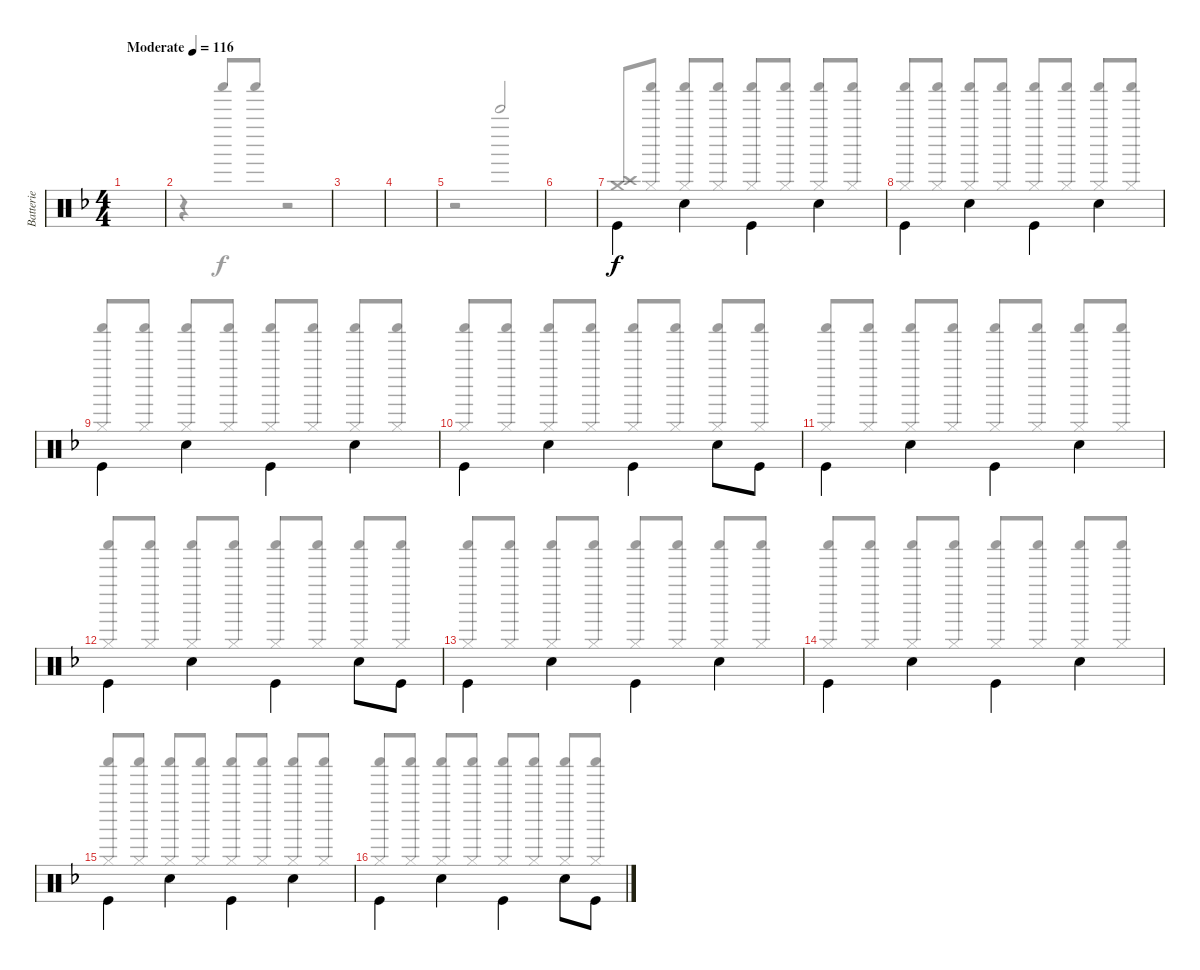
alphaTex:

\track ("Batterie" "Batterie") {instrument percussion}
\staff {score}
\articulation defaults
\voice
\ts (4 4)
\tempo (116 "Moderate")
\clef neutral
\ks f
|
|
|
|
|
|
"Kick (hit)".4{beam Down} "Snare (hit) 2".4{beam Down} "Kick (hit)".4{beam Down} "Snare (hit) 2".4{beam Down} |
"Kick (hit)".4{beam Down} "Snare (hit) 2".4{beam Down} "Kick (hit)".4{beam Down} "Snare (hit) 2".4{beam Down} |
"Kick (hit)".4{beam Down} "Snare (hit) 2".4{beam Down} "Kick (hit)".4{beam Down} "Snare (hit) 2".4{beam Down} |
"Kick (hit)".4{beam Down} "Snare (hit) 2".4{beam Down} "Kick (hit)".4{beam Down} "Snare (hit) 2".8{beam Down} "Kick (hit)".8{beam Down} |
"Kick (hit)".4{beam Down} "Snare (hit) 2".4{beam Down} "Kick (hit)".4{beam Down} "Snare (hit) 2".4{beam Down} |
"Kick (hit)".4{beam Down} "Snare (hit) 2".4{beam Down} "Kick (hit)".4{beam Down} "Snare (hit) 2".8{beam Down} "Kick (hit)".8{beam Down} |
"Kick (hit)".4{beam Down} "Snare (hit) 2".4{beam Down} "Kick (hit)".4{beam Down} "Snare (hit) 2".4{beam Down} |
"Kick (hit)".4{beam Down} "Snare (hit) 2".4{beam Down} "Kick (hit)".4{beam Down} "Snare (hit) 2".4{beam Down} |
"Kick (hit)".4{beam Down} "Snare (hit) 2".4{beam Down} "Kick (hit)".4{beam Down} "Snare (hit) 2".4{beam Down} |
"Kick (hit)".4{beam Down} "Snare (hit) 2".4{beam Down} "Kick (hit)".4{beam Down} "Snare (hit) 2".8{beam Down} "Kick (hit)".8{beam Down}
\voice
\clef neutral
\ottava regular
\simile none
\ks f
|
r.4 "Shaker (hit)".8{beam Up} "Shaker (hit)".8{beam Up} r.2 |
|
|
r.2 "Bell Tree (hit)".2{beam Up} |
|
("Crash medium (hit)" "Crash high (hit)").8{beam Up} ("Shaker (hit)" "Hi-Hat (closed)").8{beam Up} ("Shaker (hit)" "Hi-Hat (closed)").8{beam Up} ("Shaker (hit)" "Hi-Hat (closed)").8{beam Up} ("Shaker (hit)" "Hi-Hat (closed)").8{beam Up} ("Shaker (hit)" "Hi-Hat (closed)").8{beam Up} ("Shaker (hit)" "Hi-Hat (closed)").8{beam Up} ("Shaker (hit)" "Hi-Hat (closed)").8{beam Up} |
("Shaker (hit)" "Hi-Hat (closed)").8{beam Up} ("Shaker (hit)" "Hi-Hat (closed)").8{beam Up} ("Shaker (hit)" "Hi-Hat (closed)").8{beam Up} ("Shaker (hit)" "Hi-Hat (closed)").8{beam Up} ("Shaker (hit)" "Hi-Hat (closed)").8{beam Up} ("Shaker (hit)" "Hi-Hat (closed)").8{beam Up} ("Shaker (hit)" "Hi-Hat (closed)").8{beam Up} ("Shaker (hit)" "Hi-Hat (closed)").8{beam Up} |
("Shaker (hit)" "Hi-Hat (closed)").8{beam Up} ("Shaker (hit)" "Hi-Hat (closed)").8{beam Up} ("Shaker (hit)" "Hi-Hat (closed)").8{beam Up} ("Shaker (hit)" "Hi-Hat (closed)").8{beam Up} ("Shaker (hit)" "Hi-Hat (closed)").8{beam Up} ("Shaker (hit)" "Hi-Hat (closed)").8{beam Up} ("Shaker (hit)" "Hi-Hat (closed)").8{beam Up} ("Shaker (hit)" "Hi-Hat (closed)").8{beam Up} |
("Shaker (hit)" "Hi-Hat (closed)").8{beam Up} ("Shaker (hit)" "Hi-Hat (closed)").8{beam Up} ("Shaker (hit)" "Hi-Hat (closed)").8{beam Up} ("Shaker (hit)" "Hi-Hat (closed)").8{beam Up} ("Shaker (hit)" "Hi-Hat (closed)").8{beam Up} ("Shaker (hit)" "Hi-Hat (closed)").8{beam Up} ("Shaker (hit)" "Hi-Hat (closed)").8{beam Up} ("Shaker (hit)" "Hi-Hat (closed)").8{beam Up} |
("Shaker (hit)" "Hi-Hat (closed)").8{beam Up} ("Shaker (hit)" "Hi-Hat (closed)").8{beam Up} ("Shaker (hit)" "Hi-Hat (closed)").8{beam Up} ("Shaker (hit)" "Hi-Hat (closed)").8{beam Up} ("Shaker (hit)" "Hi-Hat (closed)").8{beam Up} ("Shaker (hit)" "Hi-Hat (closed)").8{beam Up} ("Shaker (hit)" "Hi-Hat (closed)").8{beam Up} ("Shaker (hit)" "Hi-Hat (closed)").8{beam Up} |
("Shaker (hit)" "Hi-Hat (closed)").8{beam Up} ("Shaker (hit)" "Hi-Hat (closed)").8{beam Up} ("Shaker (hit)" "Hi-Hat (closed)").8{beam Up} ("Shaker (hit)" "Hi-Hat (closed)").8{beam Up} ("Shaker (hit)" "Hi-Hat (closed)").8{beam Up} ("Shaker (hit)" "Hi-Hat (closed)").8{beam Up} ("Shaker (hit)" "Hi-Hat (closed)").8{beam Up} ("Shaker (hit)" "Hi-Hat (closed)").8{beam Up} |
("Shaker (hit)" "Hi-Hat (closed)").8{beam Up} ("Shaker (hit)" "Hi-Hat (closed)").8{beam Up} ("Shaker (hit)" "Hi-Hat (closed)").8{beam Up} ("Shaker (hit)" "Hi-Hat (closed)").8{beam Up} ("Shaker (hit)" "Hi-Hat (closed)").8{beam Up} ("Shaker (hit)" "Hi-Hat (closed)").8{beam Up} ("Shaker (hit)" "Hi-Hat (closed)").8{beam Up} ("Shaker (hit)" "Hi-Hat (closed)").8{beam Up} |
("Shaker (hit)" "Hi-Hat (closed)").8{beam Up} ("Shaker (hit)" "Hi-Hat (closed)").8{beam Up} ("Shaker (hit)" "Hi-Hat (closed)").8{beam Up} ("Shaker (hit)" "Hi-Hat (closed)").8{beam Up} ("Shaker (hit)" "Hi-Hat (closed)").8{beam Up} ("Shaker (hit)" "Hi-Hat (closed)").8{beam Up} ("Shaker (hit)" "Hi-Hat (closed)").8{beam Up} ("Shaker (hit)" "Hi-Hat (closed)").8{beam Up} |
("Shaker (hit)" "Hi-Hat (closed)").8{beam Up} ("Shaker (hit)" "Hi-Hat (closed)").8{beam Up} ("Shaker (hit)" "Hi-Hat (closed)").8{beam Up} ("Shaker (hit)" "Hi-Hat (closed)").8{beam Up} ("Shaker (hit)" "Hi-Hat (closed)").8{beam Up} ("Shaker (hit)" "Hi-Hat (closed)").8{beam Up} ("Shaker (hit)" "Hi-Hat (closed)").8{beam Up} ("Shaker (hit)" "Hi-Hat (closed)").8{beam Up} |
("Shaker (hit)" "Hi-Hat (closed)").8{beam Up} ("Shaker (hit)" "Hi-Hat (closed)").8{beam Up} ("Shaker (hit)" "Hi-Hat (closed)").8{beam Up} ("Shaker (hit)" "Hi-Hat (closed)").8{beam Up} ("Shaker (hit)" "Hi-Hat (closed)").8{beam Up} ("Shaker (hit)" "Hi-Hat (closed)").8{beam Up} ("Shaker (hit)" "Hi-Hat (closed)").8{beam Up} ("Shaker (hit)" "Hi-Hat (closed)").8{beam Up}
